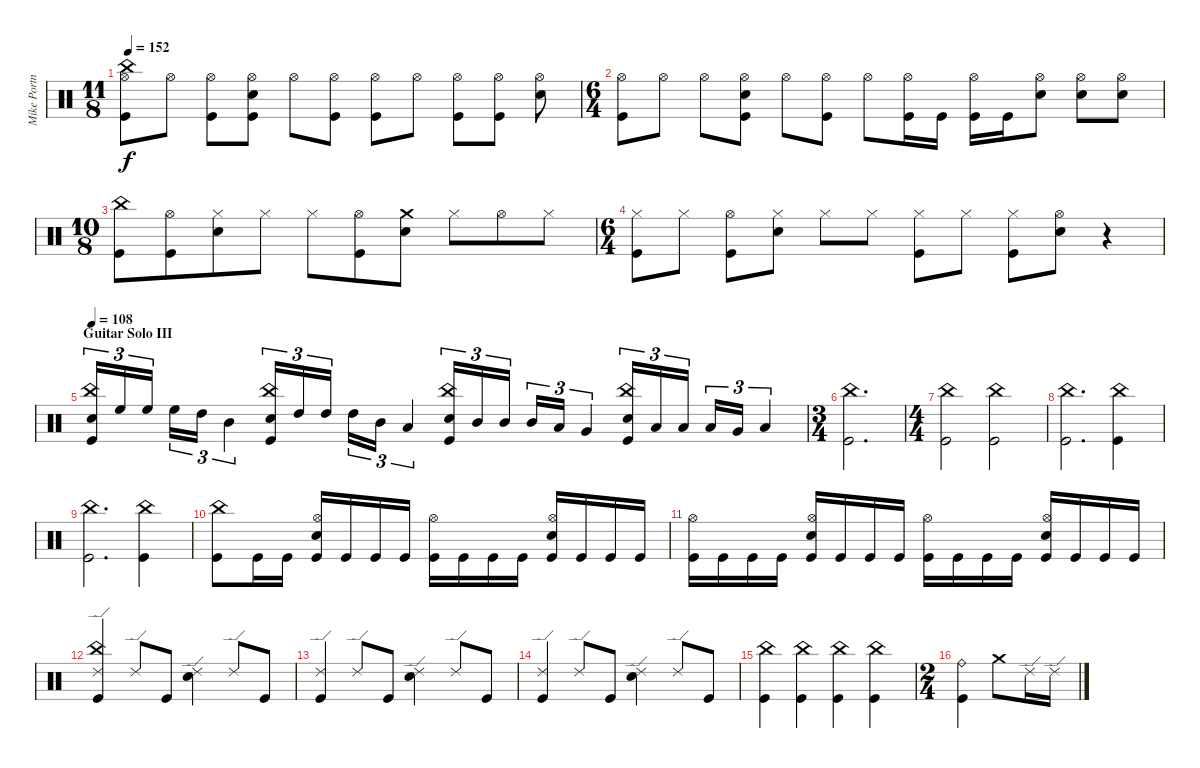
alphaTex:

\track ("Mike Portnoy (Drums)" "Mike Portn") {instrument percussion}
\staff {score}
\articulation defaults
\ts (11 8)
\tempo 152
\clef neutral
\ks c
("Kick (hit)" "Hi-Hat (open)" "China (hit)").8{dy f} "Hi-Hat (open)".8 ("Kick (hit)" "Hi-Hat (open)").8 ("Kick (hit)" "Snare (hit) 2" "Hi-Hat (open)").8 "Hi-Hat (open)".8 ("Kick (hit)" "Hi-Hat (open)").8 ("Kick (hit)" "Hi-Hat (open)").8 "Hi-Hat (open)".8 ("Kick (hit)" "Hi-Hat (open)").8 ("Kick (hit)" "Hi-Hat (open)").8 ("Snare (hit) 2" "Hi-Hat (open)").8 |
\ts (6 4)
("Kick (hit)" "Hi-Hat (open)").8 "Hi-Hat (open)".8 "Hi-Hat (open)".8 ("Kick (hit)" "Snare (hit) 2" "Hi-Hat (open)").8 "Hi-Hat (open)".8 ("Kick (hit)" "Hi-Hat (open)").8 "Hi-Hat (open)".8 ("Kick (hit)" "Hi-Hat (open)").16 "Kick (hit)".16 ("Kick (hit)" "Hi-Hat (open)").16 "Kick (hit)".16 ("Snare (hit) 2" "Hi-Hat (open)").8 ("Snare (hit) 2" "Hi-Hat (open)").8 ("Snare (hit) 2" "Hi-Hat (open)").8 |
\ts (10 8)
("Kick (hit)" "China (hit)").8 ("Kick (hit)" "Hi-Hat (open)").8 ("Snare (hit) 2" "Hi-Hat (closed)").8 "Hi-Hat (closed)".8 "Hi-Hat (closed)".8 ("Kick (hit)" "Hi-Hat (open)").8 ("Snare (hit) 2" "Crash medium (hit)").8 "Hi-Hat (closed)".8 "Hi-Hat (open)".8 "Hi-Hat (closed)".8 |
\ts (6 4)
("Kick (hit)" "Hi-Hat (closed)").8 "Hi-Hat (closed)".8 ("Kick (hit)" "Hi-Hat (open)").8 ("Snare (hit) 2" "Hi-Hat (closed)").8 "Hi-Hat (closed)".8 "Hi-Hat (closed)".8 ("Kick (hit)" "Hi-Hat (closed)").8 "Hi-Hat (closed)".8 ("Kick (hit)" "Hi-Hat (closed)").8 ("Snare (hit) 2" "Hi-Hat (open)").8 r.4 |
\section ("" "Guitar Solo III")
\tempo 108
("Kick (hit)" "Snare (hit) 2" "China (hit)").16{tu (3 2)} "High Floor Tom (hit)".16{tu (3 2)} "High Floor Tom (hit)".16{tu (3 2)} "High Floor Tom (hit)".16{tu (3 2)} "High Tom (hit)".16{tu (3 2)} "Mid Tom (hit)".4{tu (3 2)} ("Kick (hit)" "Snare (hit) 2" "China (hit)").16{tu (3 2)} "High Tom (hit)".16{tu (3 2)} "High Tom (hit)".16{tu (3 2)} "High Tom (hit)".16{tu (3 2)} "Mid Tom (hit)".16{tu (3 2)} "Low Tom (hit)".4{tu (3 2)} ("Kick (hit)" "Snare (hit) 2" "China (hit)").16{tu (3 2)} "Mid Tom (hit)".16{tu (3 2)} "Mid Tom (hit)".16{tu (3 2)} "Mid Tom (hit)".16{tu (3 2)} "Low Tom (hit)".16{tu (3 2)} "Very Low Tom (hit)".4{tu (3 2)} ("Kick (hit)" "Snare (hit) 2" "China (hit)").16{tu (3 2)} "Low Tom (hit)".16{tu (3 2)} "Low Tom (hit)".16{tu (3 2)} "Low Tom (hit)".16{tu (3 2)} "Very Low Tom (hit)".16{tu (3 2)} "Low Floor Tom (hit)".4{tu (3 2)} |
\ts (3 4)
("Kick (hit)" "China (hit)").2{d} |
\ts (4 4)
("Kick (hit)" "China (hit)").2 ("Kick (hit)" "China (hit)").2 |
("Kick (hit)" "China (hit)").2{d} ("Kick (hit)" "China (hit)").4 |
("Kick (hit)" "China (hit)").2{d} ("Kick (hit)" "China (hit)").4 |
("Kick (hit)" "China (hit)").8 "Kick (hit)".16 "Kick (hit)".16 ("Kick (hit)" "Snare (hit) 2" "Hi-Hat (open)").16 "Kick (hit)".16 "Kick (hit)".16 "Kick (hit)".16 ("Kick (hit)" "Hi-Hat (open)").16 "Kick (hit)".16 "Kick (hit)".16 "Kick (hit)".16 ("Kick (hit)" "Snare (hit) 2" "Hi-Hat (open)").16 "Kick (hit)".16 "Kick (hit)".16 "Kick (hit)".16 |
("Kick (hit)" "Hi-Hat (open)").16 "Kick (hit)".16 "Kick (hit)".16 "Kick (hit)".16 ("Kick (hit)" "Snare (hit) 2" "Hi-Hat (open)").16 "Kick (hit)".16 "Kick (hit)".16 "Kick (hit)".16 ("Kick (hit)" "Hi-Hat (open)").16 "Kick (hit)".16 "Kick (hit)".16 "Kick (hit)".16 ("Kick (hit)" "Snare (hit) 2" "Hi-Hat (open)").16 "Kick (hit)".16 "Kick (hit)".16 "Kick (hit)".16 |
("Kick (hit)" "China (hit)" "Ride (edge) 2").4 "Ride (edge) 2".8 "Kick (hit)".8 ("Snare (hit) 2" "Ride (edge) 2").4 "Ride (edge) 2".8 "Kick (hit)".8 |
("Kick (hit)" "Ride (edge) 2").4 "Ride (edge) 2".8 "Kick (hit)".8 ("Snare (hit) 2" "Ride (edge) 2").4 "Ride (edge) 2".8 "Kick (hit)".8 |
("Kick (hit)" "Ride (edge) 2").4 "Ride (edge) 2".8 "Kick (hit)".8 ("Snare (hit) 2" "Ride (edge) 2").4 "Ride (edge) 2".8 "Kick (hit)".8 |
("Kick (hit)" "China (hit)").4 ("Kick (hit)" "China (hit)").4 ("Kick (hit)" "China (hit)").4 ("Kick (hit)" "China (hit)").4 |
\ts (2 4)
("Kick (hit)" "Ride (bell)").4 "Crash medium (hit)".8 "Ride (edge) 2".16 "Ride (edge) 2".16
